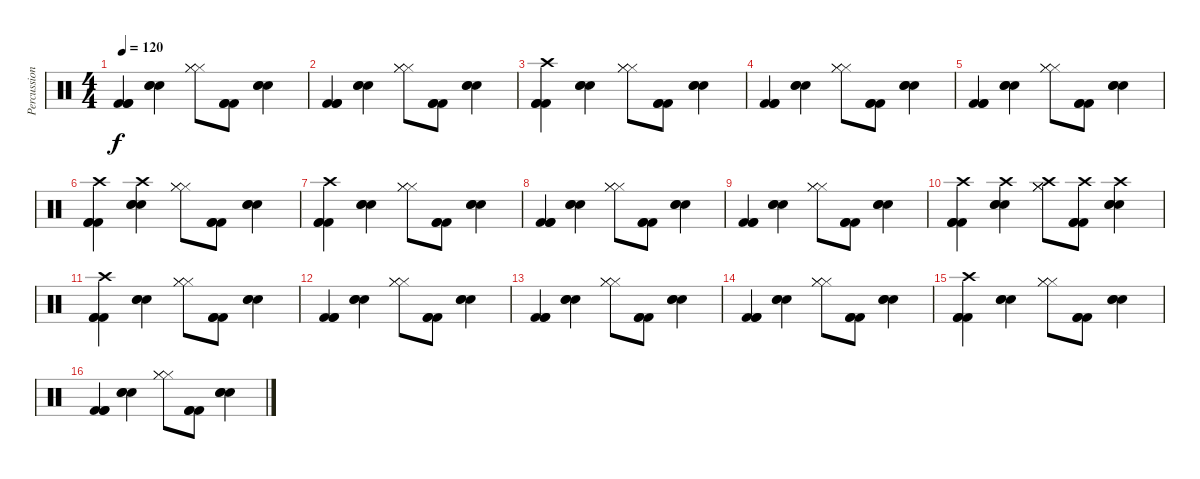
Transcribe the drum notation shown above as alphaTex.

\track ("Percussion" "Percussion") {instrument percussion}
\staff {score}
\articulation defaults
\ts (4 4)
\tempo 120
\clef neutral
\ks c
("Kick (hit) 2" "Kick (hit) 2" "Kick (hit) 2").4{dy f} ("Snare (hit) 2" "Snare (hit) 2" "Snare (hit) 2").4 ("Hi-Hat (closed)" "Hi-Hat (closed)" "Hi-Hat (closed)").8 ("Kick (hit) 2" "Kick (hit) 2" "Kick (hit) 2").8 ("Snare (hit) 2" "Snare (hit) 2" "Snare (hit) 2").4 |
("Kick (hit) 2" "Kick (hit) 2" "Kick (hit) 2").4 ("Snare (hit) 2" "Snare (hit) 2" "Snare (hit) 2").4 ("Hi-Hat (closed)" "Hi-Hat (closed)" "Hi-Hat (closed)").8 ("Kick (hit) 2" "Kick (hit) 2" "Kick (hit) 2").8 ("Snare (hit) 2" "Snare (hit) 2" "Snare (hit) 2").4 |
("Kick (hit) 2" "Kick (hit) 2" "Kick (hit) 2" "Crash high (hit)").4 ("Snare (hit) 2" "Snare (hit) 2" "Snare (hit) 2").4 ("Hi-Hat (closed)" "Hi-Hat (closed)" "Hi-Hat (closed)").8 ("Kick (hit) 2" "Kick (hit) 2" "Kick (hit) 2").8 ("Snare (hit) 2" "Snare (hit) 2" "Snare (hit) 2").4 |
("Kick (hit) 2" "Kick (hit) 2" "Kick (hit) 2").4 ("Snare (hit) 2" "Snare (hit) 2" "Snare (hit) 2").4 ("Hi-Hat (closed)" "Hi-Hat (closed)" "Hi-Hat (closed)").8 ("Kick (hit) 2" "Kick (hit) 2" "Kick (hit) 2").8 ("Snare (hit) 2" "Snare (hit) 2" "Snare (hit) 2").4 |
("Kick (hit) 2" "Kick (hit) 2" "Kick (hit) 2").4 ("Snare (hit) 2" "Snare (hit) 2" "Snare (hit) 2").4 ("Hi-Hat (closed)" "Hi-Hat (closed)" "Hi-Hat (closed)").8 ("Kick (hit) 2" "Kick (hit) 2" "Kick (hit) 2").8 ("Snare (hit) 2" "Snare (hit) 2" "Snare (hit) 2").4 |
("Kick (hit) 2" "Kick (hit) 2" "Kick (hit) 2" "Crash high (hit)").4 ("Snare (hit) 2" "Snare (hit) 2" "Snare (hit) 2" "Crash high (hit)").4 ("Hi-Hat (closed)" "Hi-Hat (closed)" "Hi-Hat (closed)").8 ("Kick (hit) 2" "Kick (hit) 2" "Kick (hit) 2").8 ("Snare (hit) 2" "Snare (hit) 2" "Snare (hit) 2").4 |
("Kick (hit) 2" "Kick (hit) 2" "Kick (hit) 2" "Crash high (hit)").4 ("Snare (hit) 2" "Snare (hit) 2" "Snare (hit) 2").4 ("Hi-Hat (closed)" "Hi-Hat (closed)" "Hi-Hat (closed)").8 ("Kick (hit) 2" "Kick (hit) 2" "Kick (hit) 2").8 ("Snare (hit) 2" "Snare (hit) 2" "Snare (hit) 2").4 |
("Kick (hit) 2" "Kick (hit) 2" "Kick (hit) 2").4 ("Snare (hit) 2" "Snare (hit) 2" "Snare (hit) 2").4 ("Hi-Hat (closed)" "Hi-Hat (closed)" "Hi-Hat (closed)").8 ("Kick (hit) 2" "Kick (hit) 2" "Kick (hit) 2").8 ("Snare (hit) 2" "Snare (hit) 2" "Snare (hit) 2").4 |
("Kick (hit) 2" "Kick (hit) 2" "Kick (hit) 2").4 ("Snare (hit) 2" "Snare (hit) 2" "Snare (hit) 2").4 ("Hi-Hat (closed)" "Hi-Hat (closed)" "Hi-Hat (closed)").8 ("Kick (hit) 2" "Kick (hit) 2" "Kick (hit) 2").8 ("Snare (hit) 2" "Snare (hit) 2" "Snare (hit) 2").4 |
("Kick (hit) 2" "Kick (hit) 2" "Kick (hit) 2" "Crash high (hit)").4 ("Snare (hit) 2" "Snare (hit) 2" "Snare (hit) 2" "Crash high (hit)").4 ("Hi-Hat (closed)" "Hi-Hat (closed)" "Hi-Hat (closed)" "Crash high (hit)").8 ("Kick (hit) 2" "Kick (hit) 2" "Kick (hit) 2" "Crash high (hit)").8 ("Snare (hit) 2" "Snare (hit) 2" "Snare (hit) 2" "Crash high (hit)").4 |
("Kick (hit) 2" "Kick (hit) 2" "Kick (hit) 2" "Crash high (hit)").4 ("Snare (hit) 2" "Snare (hit) 2" "Snare (hit) 2").4 ("Hi-Hat (closed)" "Hi-Hat (closed)" "Hi-Hat (closed)").8 ("Kick (hit) 2" "Kick (hit) 2" "Kick (hit) 2").8 ("Snare (hit) 2" "Snare (hit) 2" "Snare (hit) 2").4 |
("Kick (hit) 2" "Kick (hit) 2" "Kick (hit) 2").4 ("Snare (hit) 2" "Snare (hit) 2" "Snare (hit) 2").4 ("Hi-Hat (closed)" "Hi-Hat (closed)" "Hi-Hat (closed)").8 ("Kick (hit) 2" "Kick (hit) 2" "Kick (hit) 2").8 ("Snare (hit) 2" "Snare (hit) 2" "Snare (hit) 2").4 |
("Kick (hit) 2" "Kick (hit) 2" "Kick (hit) 2").4 ("Snare (hit) 2" "Snare (hit) 2" "Snare (hit) 2").4 ("Hi-Hat (closed)" "Hi-Hat (closed)" "Hi-Hat (closed)").8 ("Kick (hit) 2" "Kick (hit) 2" "Kick (hit) 2").8 ("Snare (hit) 2" "Snare (hit) 2" "Snare (hit) 2").4 |
("Kick (hit) 2" "Kick (hit) 2" "Kick (hit) 2").4 ("Snare (hit) 2" "Snare (hit) 2" "Snare (hit) 2").4 ("Hi-Hat (closed)" "Hi-Hat (closed)" "Hi-Hat (closed)").8 ("Kick (hit) 2" "Kick (hit) 2" "Kick (hit) 2").8 ("Snare (hit) 2" "Snare (hit) 2" "Snare (hit) 2").4 |
("Kick (hit) 2" "Kick (hit) 2" "Kick (hit) 2" "Crash high (hit)").4 ("Snare (hit) 2" "Snare (hit) 2" "Snare (hit) 2").4 ("Hi-Hat (closed)" "Hi-Hat (closed)" "Hi-Hat (closed)").8 ("Kick (hit) 2" "Kick (hit) 2" "Kick (hit) 2").8 ("Snare (hit) 2" "Snare (hit) 2" "Snare (hit) 2").4 |
("Kick (hit) 2" "Kick (hit) 2" "Kick (hit) 2").4 ("Snare (hit) 2" "Snare (hit) 2" "Snare (hit) 2").4 ("Hi-Hat (closed)" "Hi-Hat (closed)" "Hi-Hat (closed)").8 ("Kick (hit) 2" "Kick (hit) 2" "Kick (hit) 2").8 ("Snare (hit) 2" "Snare (hit) 2" "Snare (hit) 2").4
